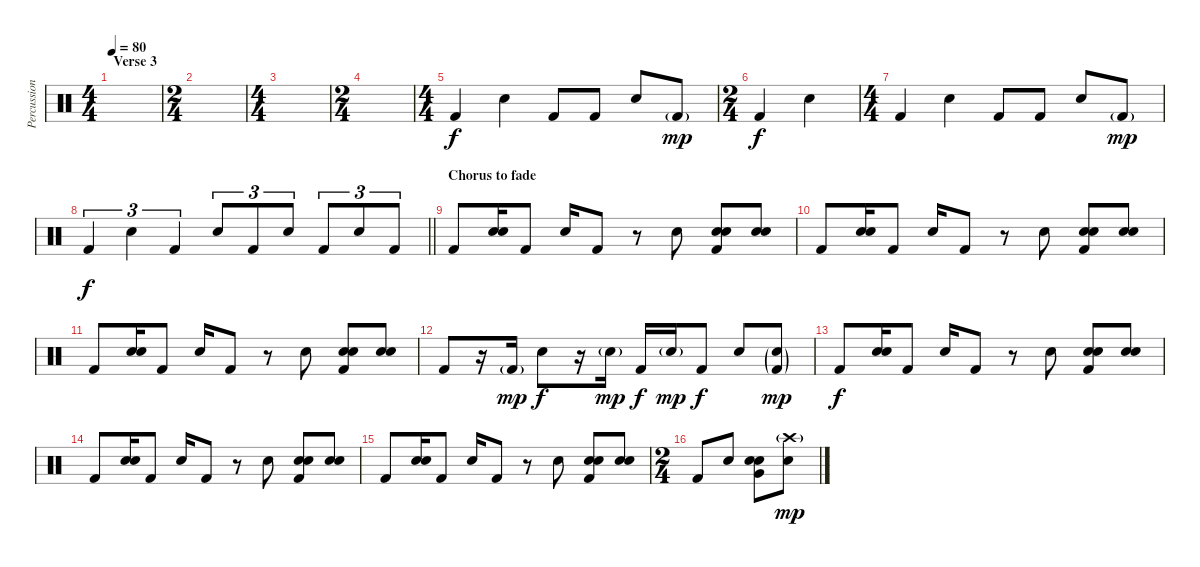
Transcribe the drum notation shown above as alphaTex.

\track ("Percussion" "Percussion") {instrument percussion}
\staff {score}
\articulation defaults
\ts (4 4)
\section ("" "Verse 3")
\tempo 80
\clef neutral
\ks c
|
\ts (2 4)
|
\ts (4 4)
|
\ts (2 4)
|
\ts (4 4)
"Kick (hit) 2".4{dy f} "Snare (hit) 2".4 "Kick (hit) 2".8 "Kick (hit) 2".8 "Snare (hit) 2".8 "Kick (hit) 2"{g}.8{dy mp} |
\ts (2 4)
"Kick (hit) 2".4{dy f} "Snare (hit) 2".4 |
\ts (4 4)
"Kick (hit) 2".4 "Snare (hit) 2".4 "Kick (hit) 2".8 "Kick (hit) 2".8 "Snare (hit) 2".8 "Kick (hit) 2"{g}.8{dy mp} |
\barLineRight lightlight "Kick (hit) 2".4{tu (3 2) dy f} "Snare (hit) 2".4{tu (3 2)} "Kick (hit) 2".4{tu (3 2)} "Snare (hit) 2".8{tu (3 2)} "Kick (hit) 2".8{tu (3 2)} "Snare (hit) 2".8{tu (3 2)} "Kick (hit) 2".8{tu (3 2)} "Snare (hit) 2".8{tu (3 2)} "Kick (hit) 2".8{tu (3 2)}
|
\section ("" "Chorus to fade")
"Kick (hit) 2".8 ("Hand Clap (hit)" "Snare (hit) 2").16 "Kick (hit) 2".8 "Snare (hit) 2".16 "Kick (hit) 2".8 r.8 "Snare (hit) 2".8 ("Hand Clap (hit)" "Snare (hit) 2" "Kick (hit) 2").8 ("Hand Clap (hit)" "Snare (hit) 2").8 |
"Kick (hit) 2".8 ("Hand Clap (hit)" "Snare (hit) 2").16 "Kick (hit) 2".8 "Snare (hit) 2".16 "Kick (hit) 2".8 r.8 "Snare (hit) 2".8 ("Hand Clap (hit)" "Snare (hit) 2" "Kick (hit) 2").8 ("Hand Clap (hit)" "Snare (hit) 2").8 |
"Kick (hit) 2".8 ("Hand Clap (hit)" "Snare (hit) 2").16 "Kick (hit) 2".8 "Snare (hit) 2".16 "Kick (hit) 2".8 r.8 "Snare (hit) 2".8 ("Hand Clap (hit)" "Snare (hit) 2" "Kick (hit) 2").8 ("Hand Clap (hit)" "Snare (hit) 2").8 |
"Kick (hit) 2".8 r.16 "Kick (hit) 2"{g}.16{dy mp} "Snare (hit) 2".8{dy f} r.16 "Snare (hit) 2"{g}.16{dy mp} "Kick (hit) 2".16{dy f} "Snare (hit) 2"{g}.16{dy mp} "Kick (hit) 2".8{dy f} "Snare (hit) 2".8 ("Snare (hit) 2"{g} "Kick (hit) 2"{g}).8{dy mp} |
"Kick (hit) 2".8{dy f} ("Hand Clap (hit)" "Snare (hit) 2").16 "Kick (hit) 2".8 "Snare (hit) 2".16 "Kick (hit) 2".8 r.8 "Snare (hit) 2".8 ("Hand Clap (hit)" "Snare (hit) 2" "Kick (hit) 2").8 ("Hand Clap (hit)" "Snare (hit) 2").8 |
"Kick (hit) 2".8 ("Hand Clap (hit)" "Snare (hit) 2").16 "Kick (hit) 2".8 "Snare (hit) 2".16 "Kick (hit) 2".8 r.8 "Snare (hit) 2".8 ("Hand Clap (hit)" "Snare (hit) 2" "Kick (hit) 2").8 ("Hand Clap (hit)" "Snare (hit) 2").8 |
"Kick (hit) 2".8 ("Hand Clap (hit)" "Snare (hit) 2").16 "Kick (hit) 2".8 "Snare (hit) 2".16 "Kick (hit) 2".8 r.8 "Snare (hit) 2".8 ("Hand Clap (hit)" "Snare (hit) 2" "Kick (hit) 2").8 ("Hand Clap (hit)" "Snare (hit) 2").8 |
\ts (2 4)
"Kick (hit) 2".8 "Snare (hit) 2".8 ("Hand Clap (hit)" "Snare (hit) 2" "Very Low Tom (hit)").8 ("Crash high (hit)"{g} "Snare (hit) 2").8{dy mp}
